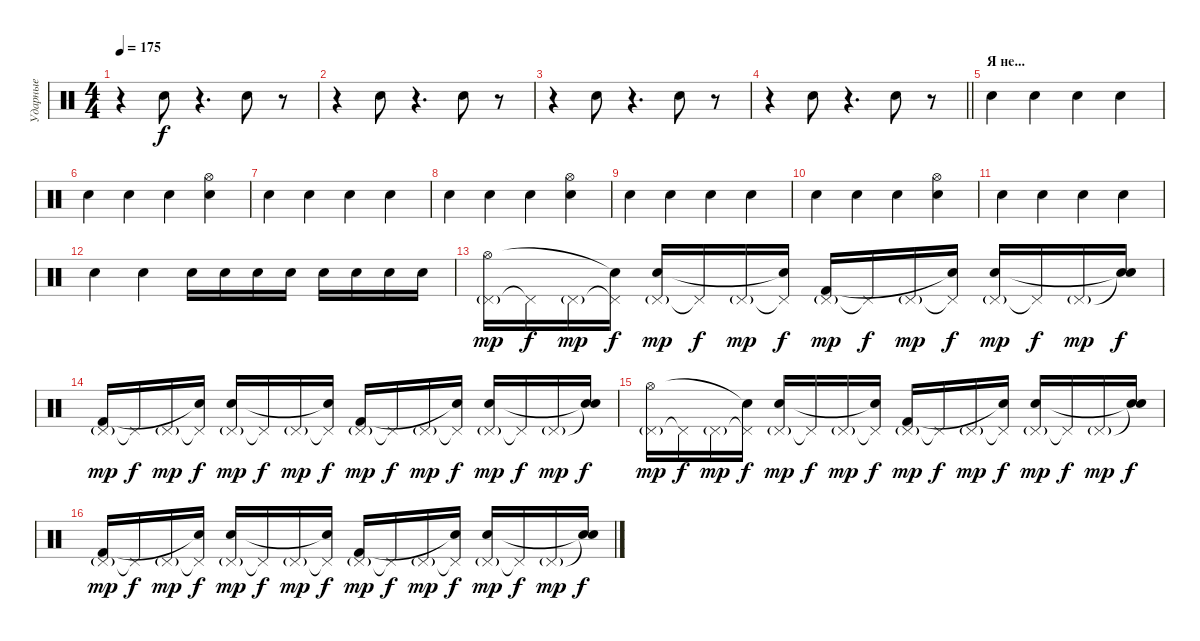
\track ("Ударные" "Ударные") {instrument percussion}
\staff {score}
\articulation defaults
\ts (4 4)
\tempo 175
\clef neutral
\ks c
r.4{dy f} "Electric Snare (hit)".8 r.4{d} "Electric Snare (hit)".8 r.8 |
r.4 "Electric Snare (hit)".8 r.4{d} "Electric Snare (hit)".8 r.8 |
r.4 "Electric Snare (hit)".8 r.4{d} "Electric Snare (hit)".8 r.8 |
\barLineRight lightlight
r.4 "Electric Snare (hit)".8 r.4{d} "Electric Snare (hit)".8 r.8 |
\section ("" "Я не...")
"Electric Snare (hit)".4 "Electric Snare (hit)".4 "Electric Snare (hit)".4 "Electric Snare (hit)".4 |
"Electric Snare (hit)".4 "Electric Snare (hit)".4 "Electric Snare (hit)".4 ("Hi-Hat (open)" "Electric Snare (hit)").4 |
"Electric Snare (hit)".4 "Electric Snare (hit)".4 "Electric Snare (hit)".4 "Electric Snare (hit)".4 |
"Electric Snare (hit)".4 "Electric Snare (hit)".4 "Electric Snare (hit)".4 ("Hi-Hat (open)" "Electric Snare (hit)").4 |
"Electric Snare (hit)".4 "Electric Snare (hit)".4 "Electric Snare (hit)".4 "Electric Snare (hit)".4 |
"Electric Snare (hit)".4 "Electric Snare (hit)".4 "Electric Snare (hit)".4 ("Hi-Hat (open)" "Electric Snare (hit)").4 |
"Electric Snare (hit)".4 "Electric Snare (hit)".4 "Electric Snare (hit)".4 "Electric Snare (hit)".4 |
"Electric Snare (hit)".4 "Electric Snare (hit)".4 "Snare (hit) 2".16 "Snare (hit) 2".16 "Snare (hit) 2".16 "Snare (hit) 2".16 "Snare (hit) 2".16 "Snare (hit) 2".16 "Snare (hit) 2".16 "Snare (hit) 2".16 |
("Pedal Hi-Hat (hit)"{g} "Hi-Hat (open)").16{dy mp} "Pedal Hi-Hat (hit)"{t}.16{dy f} "Pedal Hi-Hat (hit)"{g}.16{dy mp} ("Pedal Hi-Hat (hit)"{t} "Snare (hit)"{t}).16{dy f} ("Pedal Hi-Hat (hit)"{g} "Electric Snare (hit)").16{dy mp} "Pedal Hi-Hat (hit)"{t}.16{dy f} "Pedal Hi-Hat (hit)"{g}.16{dy mp} ("Pedal Hi-Hat (hit)"{t} "Snare (hit)"{t}).16{dy f} ("Pedal Hi-Hat (hit)"{g} "Kick (hit) 2").16{dy mp} "Pedal Hi-Hat (hit)"{t}.16{dy f} "Pedal Hi-Hat (hit)"{g}.16{dy mp} ("Pedal Hi-Hat (hit)"{t} "Snare (hit)"{t}).16{dy f} ("Pedal Hi-Hat (hit)"{g} "Electric Snare (hit)").16{dy mp} "Pedal Hi-Hat (hit)"{t}.16{dy f} "Pedal Hi-Hat (hit)"{g}.16{dy mp} ("Snare (hit)"{t} "Snare (hit)"{t}).16{dy f} |
("Pedal Hi-Hat (hit)"{g} "Kick (hit) 2").16{dy mp} "Pedal Hi-Hat (hit)"{t}.16{dy f} "Pedal Hi-Hat (hit)"{g}.16{dy mp} ("Pedal Hi-Hat (hit)"{t} "Snare (hit)"{t}).16{dy f} ("Pedal Hi-Hat (hit)"{g} "Electric Snare (hit)").16{dy mp} "Pedal Hi-Hat (hit)"{t}.16{dy f} "Pedal Hi-Hat (hit)"{g}.16{dy mp} ("Pedal Hi-Hat (hit)"{t} "Snare (hit)"{t}).16{dy f} ("Pedal Hi-Hat (hit)"{g} "Kick (hit) 2").16{dy mp} "Pedal Hi-Hat (hit)"{t}.16{dy f} "Pedal Hi-Hat (hit)"{g}.16{dy mp} ("Pedal Hi-Hat (hit)"{t} "Snare (hit)"{t}).16{dy f} ("Pedal Hi-Hat (hit)"{g} "Electric Snare (hit)").16{dy mp} "Pedal Hi-Hat (hit)"{t}.16{dy f} "Pedal Hi-Hat (hit)"{g}.16{dy mp} ("Snare (hit)"{t} "Snare (hit)"{t}).16{dy f} |
("Pedal Hi-Hat (hit)"{g} "Hi-Hat (open)").16{dy mp} "Pedal Hi-Hat (hit)"{t}.16{dy f} "Pedal Hi-Hat (hit)"{g}.16{dy mp} ("Pedal Hi-Hat (hit)"{t} "Snare (hit)"{t}).16{dy f} ("Pedal Hi-Hat (hit)"{g} "Electric Snare (hit)").16{dy mp} "Pedal Hi-Hat (hit)"{t}.16{dy f} "Pedal Hi-Hat (hit)"{g}.16{dy mp} ("Pedal Hi-Hat (hit)"{t} "Snare (hit)"{t}).16{dy f} ("Pedal Hi-Hat (hit)"{g} "Kick (hit) 2").16{dy mp} "Pedal Hi-Hat (hit)"{t}.16{dy f} "Pedal Hi-Hat (hit)"{g}.16{dy mp} ("Pedal Hi-Hat (hit)"{t} "Snare (hit)"{t}).16{dy f} ("Pedal Hi-Hat (hit)"{g} "Electric Snare (hit)").16{dy mp} "Pedal Hi-Hat (hit)"{t}.16{dy f} "Pedal Hi-Hat (hit)"{g}.16{dy mp} ("Snare (hit)"{t} "Snare (hit)"{t}).16{dy f} |
("Pedal Hi-Hat (hit)"{g} "Kick (hit) 2").16{dy mp} "Pedal Hi-Hat (hit)"{t}.16{dy f} "Pedal Hi-Hat (hit)"{g}.16{dy mp} ("Pedal Hi-Hat (hit)"{t} "Snare (hit)"{t}).16{dy f} ("Pedal Hi-Hat (hit)"{g} "Electric Snare (hit)").16{dy mp} "Pedal Hi-Hat (hit)"{t}.16{dy f} "Pedal Hi-Hat (hit)"{g}.16{dy mp} ("Pedal Hi-Hat (hit)"{t} "Snare (hit)"{t}).16{dy f} ("Pedal Hi-Hat (hit)"{g} "Kick (hit) 2").16{dy mp} "Pedal Hi-Hat (hit)"{t}.16{dy f} "Pedal Hi-Hat (hit)"{g}.16{dy mp} ("Pedal Hi-Hat (hit)"{t} "Snare (hit)"{t}).16{dy f} ("Pedal Hi-Hat (hit)"{g} "Electric Snare (hit)").16{dy mp} "Pedal Hi-Hat (hit)"{t}.16{dy f} "Pedal Hi-Hat (hit)"{g}.16{dy mp} ("Snare (hit)"{t} "Snare (hit)"{t}).16{dy f}
